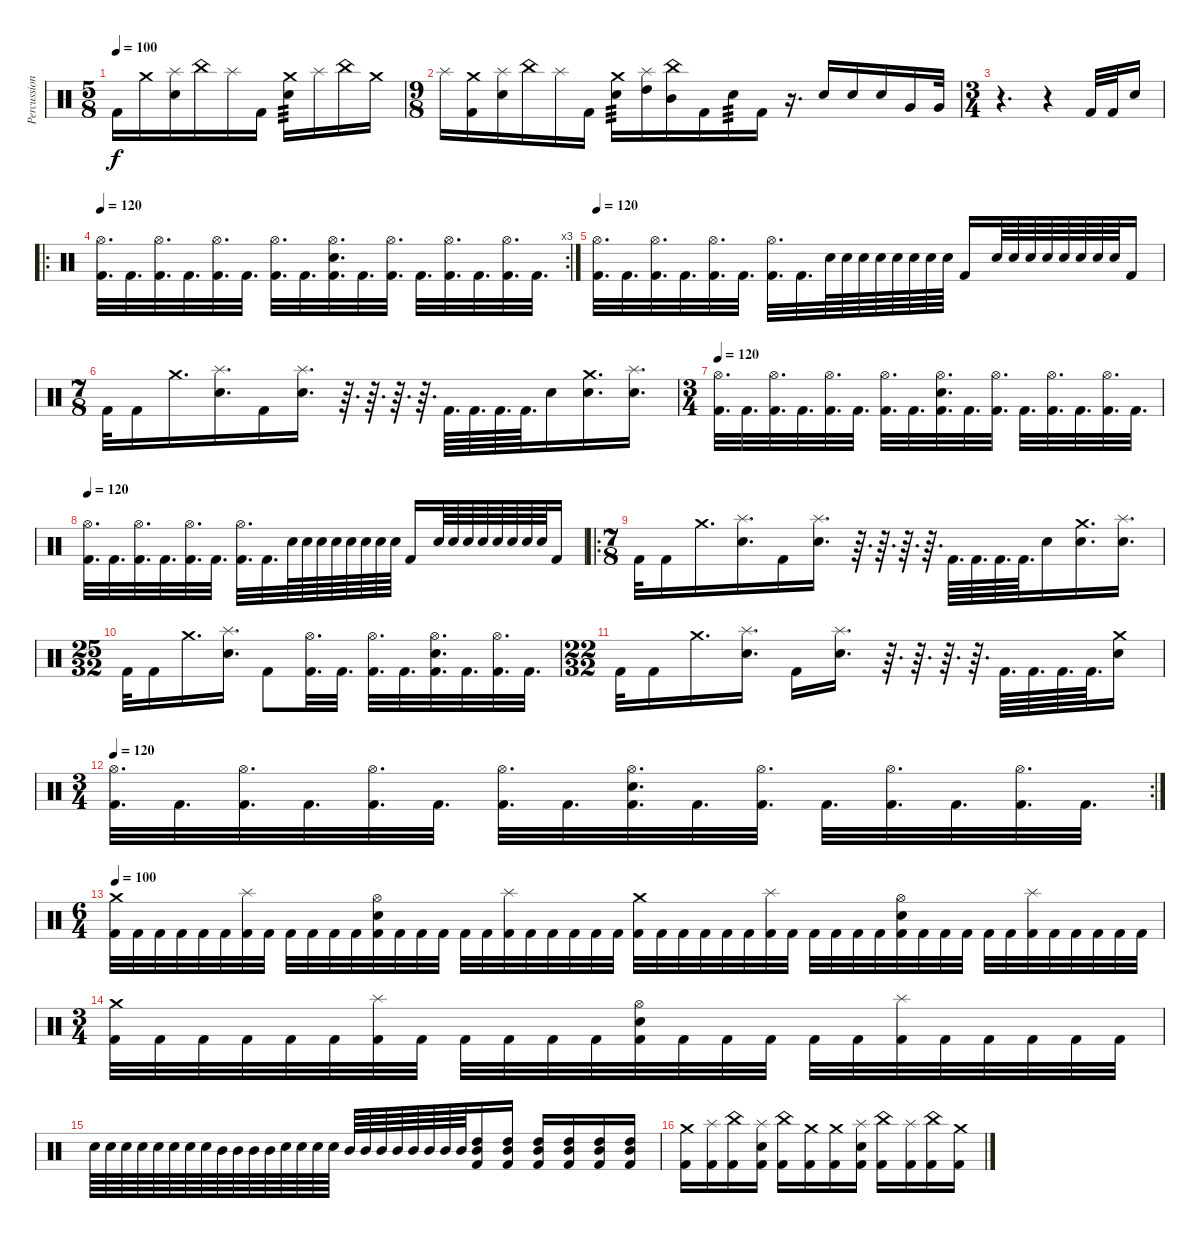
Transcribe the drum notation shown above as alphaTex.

\track ("Percussion" "Percussion") {instrument percussion}
\staff {score}
\articulation defaults
\ts (5 8)
\tempo 100
\clef neutral
\ks c "Kick (hit) 2".16{dy f} "Crash medium (hit)".16
("Splash (hit)" "Electric Snare (hit)").16 "China (hit)".16 "Splash (hit)".16 "Kick (hit) 2".16 ("Crash medium (hit)" "Electric Snare (hit)").16{tp 3} "Splash (hit)".16 "China (hit)".16 "Crash medium (hit)".16 |
\ts (9 8)
"Splash (hit)".16 ("Crash medium (hit)" "Kick (hit) 2").16 ("Splash (hit)" "Electric Snare (hit)").16 "China (hit)".16 "Splash (hit)".16 "Kick (hit) 2".16 ("Crash medium (hit)" "Electric Snare (hit)").16{tp 3} ("Splash (hit)" "High Tom (hit)").16 ("China (hit)" "Mid Tom (hit)").16 "Kick (hit) 2".16 "Electric Snare (hit)".16{tp 3} "Kick (hit) 2".16 r.16{d} "Electric Snare (hit)".16 "Electric Snare (hit)".16 "Electric Snare (hit)".16 "Very Low Tom (hit)".16 "Very Low Tom (hit)".32 |
\ts (3 4)
r.4{d} r.4 "Kick (hit) 2".32 "Kick (hit) 2".32 "Electric Snare (hit)".16 |
\ro
\rc 3
\tempo 120
("Hi-Hat (open)" "Kick (hit) 2").32{d} "Kick (hit) 2".32{d} ("Hi-Hat (open)" "Kick (hit) 2").32{d} "Kick (hit) 2".32{d} ("Hi-Hat (open)" "Kick (hit) 2").32{d} "Kick (hit) 2".32{d} ("Hi-Hat (open)" "Kick (hit) 2").32{d} "Kick (hit) 2".32{d} ("Hi-Hat (open)" "Electric Snare (hit)" "Kick (hit) 2").32{d} "Kick (hit) 2".32{d} ("Hi-Hat (open)" "Kick (hit) 2").32{d} "Kick (hit) 2".32{d} ("Hi-Hat (open)" "Kick (hit) 2").32{d} "Kick (hit) 2".32{d} ("Hi-Hat (open)" "Kick (hit) 2").32{d} "Kick (hit) 2".32{d} |
\tempo 120
("Hi-Hat (open)" "Kick (hit) 2").32{d} "Kick (hit) 2".32{d} ("Hi-Hat (open)" "Kick (hit) 2").32{d} "Kick (hit) 2".32{d} ("Hi-Hat (open)" "Kick (hit) 2").32{d} "Kick (hit) 2".32{d} ("Hi-Hat (open)" "Kick (hit) 2").32{d} "Kick (hit) 2".32{d} "Electric Snare (hit)".64 "Electric Snare (hit)".64 "Electric Snare (hit)".64 "Electric Snare (hit)".64 "Electric Snare (hit)".64 "Electric Snare (hit)".64 "Electric Snare (hit)".64 "Electric Snare (hit)".64 "Kick (hit) 2".16 "Electric Snare (hit)".64 "Electric Snare (hit)".64 "Electric Snare (hit)".64 "Electric Snare (hit)".64 "Electric Snare (hit)".64 "Electric Snare (hit)".64 "Electric Snare (hit)".64 "Electric Snare (hit)".64 "Kick (hit) 2".16 |
\ts (7 8)
"Kick (hit) 2".32 "Kick (hit) 2".16 "Crash medium (hit)".16{d} ("Splash (hit)" "Electric Snare (hit)").16{d} "Kick (hit) 2".16 ("Splash (hit)" "Electric Snare (hit)").16{d} r.64{d} r.64{d} r.64{d} r.64{d} "Kick (hit) 2".64{d} "Kick (hit) 2".64{d} "Kick (hit) 2".64{d} "Kick (hit) 2".64{d} "Electric Snare (hit)".16 ("Crash medium (hit)" "Electric Snare (hit)").16{d} ("Splash (hit)" "Electric Snare (hit)").16{d} |
\ts (3 4)
\tempo 120
("Hi-Hat (open)" "Kick (hit) 2").32{d} "Kick (hit) 2".32{d} ("Hi-Hat (open)" "Kick (hit) 2").32{d} "Kick (hit) 2".32{d} ("Hi-Hat (open)" "Kick (hit) 2").32{d} "Kick (hit) 2".32{d} ("Hi-Hat (open)" "Kick (hit) 2").32{d} "Kick (hit) 2".32{d} ("Hi-Hat (open)" "Electric Snare (hit)" "Kick (hit) 2").32{d} "Kick (hit) 2".32{d} ("Hi-Hat (open)" "Kick (hit) 2").32{d} "Kick (hit) 2".32{d} ("Hi-Hat (open)" "Kick (hit) 2").32{d} "Kick (hit) 2".32{d} ("Hi-Hat (open)" "Kick (hit) 2").32{d} "Kick (hit) 2".32{d} |
\tempo 120
("Hi-Hat (open)" "Kick (hit) 2").32{d} "Kick (hit) 2".32{d} ("Hi-Hat (open)" "Kick (hit) 2").32{d} "Kick (hit) 2".32{d} ("Hi-Hat (open)" "Kick (hit) 2").32{d} "Kick (hit) 2".32{d} ("Hi-Hat (open)" "Kick (hit) 2").32{d} "Kick (hit) 2".32{d} "Electric Snare (hit)".64 "Electric Snare (hit)".64 "Electric Snare (hit)".64 "Electric Snare (hit)".64 "Electric Snare (hit)".64 "Electric Snare (hit)".64 "Electric Snare (hit)".64 "Electric Snare (hit)".64 "Kick (hit) 2".16 "Electric Snare (hit)".64 "Electric Snare (hit)".64 "Electric Snare (hit)".64 "Electric Snare (hit)".64 "Electric Snare (hit)".64 "Electric Snare (hit)".64 "Electric Snare (hit)".64 "Electric Snare (hit)".64 "Kick (hit) 2".16 |
\ro
\ts (7 8)
"Kick (hit) 2".32 "Kick (hit) 2".16 "Crash medium (hit)".16{d} ("Splash (hit)" "Electric Snare (hit)").16{d} "Kick (hit) 2".16 ("Splash (hit)" "Electric Snare (hit)").16{d} r.64{d} r.64{d} r.64{d} r.64{d} "Kick (hit) 2".64{d} "Kick (hit) 2".64{d} "Kick (hit) 2".64{d} "Kick (hit) 2".64{d} "Electric Snare (hit)".16 ("Crash medium (hit)" "Electric Snare (hit)").16{d} ("Splash (hit)" "Electric Snare (hit)").16{d} |
\ts (25 32)
"Kick (hit) 2".32 "Kick (hit) 2".16 "Crash medium (hit)".16{d} ("Splash (hit)" "Electric Snare (hit)").16{d} "Kick (hit) 2".8 ("Hi-Hat (open)" "Kick (hit) 2").32{d} "Kick (hit) 2".32{d} ("Hi-Hat (open)" "Kick (hit) 2").32{d} "Kick (hit) 2".32{d} ("Hi-Hat (open)" "Electric Snare (hit)" "Kick (hit) 2").32{d} "Kick (hit) 2".32{d} ("Hi-Hat (open)" "Kick (hit) 2").32{d} "Kick (hit) 2".32{d} |
\ts (22 32)
"Kick (hit) 2".32 "Kick (hit) 2".16 "Crash medium (hit)".16{d} ("Splash (hit)" "Electric Snare (hit)").16{d} "Kick (hit) 2".16 ("Splash (hit)" "Electric Snare (hit)").16{d} r.64{d} r.64{d} r.64{d} r.64{d} "Kick (hit) 2".64{d} "Kick (hit) 2".64{d} "Kick (hit) 2".64{d} "Kick (hit) 2".64{d} ("Crash medium (hit)" "Electric Snare (hit)").16 |
\rc 2
\ts (3 4)
\tempo 120
("Hi-Hat (open)" "Kick (hit) 2").32{d} "Kick (hit) 2".32{d} ("Hi-Hat (open)" "Kick (hit) 2").32{d} "Kick (hit) 2".32{d} ("Hi-Hat (open)" "Kick (hit) 2").32{d} "Kick (hit) 2".32{d} ("Hi-Hat (open)" "Kick (hit) 2").32{d} "Kick (hit) 2".32{d} ("Hi-Hat (open)" "Electric Snare (hit)" "Kick (hit) 2").32{d} "Kick (hit) 2".32{d} ("Hi-Hat (open)" "Kick (hit) 2").32{d} "Kick (hit) 2".32{d} ("Hi-Hat (open)" "Kick (hit) 2").32{d} "Kick (hit) 2".32{d} ("Hi-Hat (open)" "Kick (hit) 2").32{d} "Kick (hit) 2".32{d} |
\ts (6 4)
\tempo 100
("Crash medium (hit)" "Kick (hit) 2").32 "Kick (hit) 2".32 "Kick (hit) 2".32 "Kick (hit) 2".32 "Kick (hit) 2".32 "Kick (hit) 2".32 ("Splash (hit)" "Kick (hit) 2").32 "Kick (hit) 2".32 "Kick (hit) 2".32 "Kick (hit) 2".32 "Kick (hit) 2".32 "Kick (hit) 2".32 ("Hi-Hat (open)" "Electric Snare (hit)" "Kick (hit) 2").32 "Kick (hit) 2".32 "Kick (hit) 2".32 "Kick (hit) 2".32 "Kick (hit) 2".32 "Kick (hit) 2".32 ("Splash (hit)" "Kick (hit) 2").32 "Kick (hit) 2".32 "Kick (hit) 2".32 "Kick (hit) 2".32 "Kick (hit) 2".32 "Kick (hit) 2".32 ("Crash medium (hit)" "Kick (hit) 2").32 "Kick (hit) 2".32 "Kick (hit) 2".32 "Kick (hit) 2".32 "Kick (hit) 2".32 "Kick (hit) 2".32 ("Splash (hit)" "Kick (hit) 2").32 "Kick (hit) 2".32 "Kick (hit) 2".32 "Kick (hit) 2".32 "Kick (hit) 2".32 "Kick (hit) 2".32 ("Hi-Hat (open)" "Electric Snare (hit)" "Kick (hit) 2").32 "Kick (hit) 2".32 "Kick (hit) 2".32 "Kick (hit) 2".32 "Kick (hit) 2".32 "Kick (hit) 2".32 ("Splash (hit)" "Kick (hit) 2").32 "Kick (hit) 2".32 "Kick (hit) 2".32 "Kick (hit) 2".32 "Kick (hit) 2".32 "Kick (hit) 2".32 |
\ts (3 4)
("Crash medium (hit)" "Kick (hit) 2").32 "Kick (hit) 2".32 "Kick (hit) 2".32 "Kick (hit) 2".32 "Kick (hit) 2".32 "Kick (hit) 2".32 ("Splash (hit)" "Kick (hit) 2").32 "Kick (hit) 2".32 "Kick (hit) 2".32 "Kick (hit) 2".32 "Kick (hit) 2".32 "Kick (hit) 2".32 ("Hi-Hat (open)" "Electric Snare (hit)" "Kick (hit) 2").32 "Kick (hit) 2".32 "Kick (hit) 2".32 "Kick (hit) 2".32 "Kick (hit) 2".32 "Kick (hit) 2".32 ("Splash (hit)" "Kick (hit) 2").32 "Kick (hit) 2".32 "Kick (hit) 2".32 "Kick (hit) 2".32 "Kick (hit) 2".32 "Kick (hit) 2".32 |
"Electric Snare (hit)".64 "Electric Snare (hit)".64 "Electric Snare (hit)".64 "Electric Snare (hit)".64 "Electric Snare (hit)".64 "Electric Snare (hit)".64 "Electric Snare (hit)".64 "Electric Snare (hit)".64 "Mid Tom (hit)".64 "Mid Tom (hit)".64 "Mid Tom (hit)".64 "Mid Tom (hit)".64 "Electric Snare (hit)".64 "Electric Snare (hit)".64 "Electric Snare (hit)".64 "Electric Snare (hit)".64 "Mid Tom (hit)".64 "Mid Tom (hit)".64 "Mid Tom (hit)".64 "Mid Tom (hit)".64 "Mid Tom (hit)".64 "Mid Tom (hit)".64 "Mid Tom (hit)".64 "Mid Tom (hit)".64 ("High Tom (hit)" "Mid Tom (hit)" "Kick (hit) 2").16 ("High Tom (hit)" "Mid Tom (hit)" "Kick (hit) 2").16 ("High Tom (hit)" "Mid Tom (hit)" "Kick (hit) 2").16 ("High Tom (hit)" "Mid Tom (hit)" "Kick (hit) 2").16 ("High Tom (hit)" "Mid Tom (hit)" "Kick (hit) 2").16 ("High Tom (hit)" "Mid Tom (hit)" "Kick (hit) 2").16 |
("Crash medium (hit)" "Kick (hit) 2").16 ("Splash (hit)" "Kick (hit) 2").16 ("China (hit)" "Kick (hit) 2").16 ("Splash (hit)" "Electric Snare (hit)" "Kick (hit) 2").16 ("China (hit)" "Kick (hit) 2").16 ("Crash medium (hit)" "Kick (hit) 2").16 ("Crash medium (hit)" "Kick (hit) 2").16 ("Splash (hit)" "Electric Snare (hit)" "Kick (hit) 2").16 ("China (hit)" "Kick (hit) 2").16 ("Splash (hit)" "Kick (hit) 2").16 ("China (hit)" "Kick (hit) 2").16 ("Crash medium (hit)" "Kick (hit) 2").16
